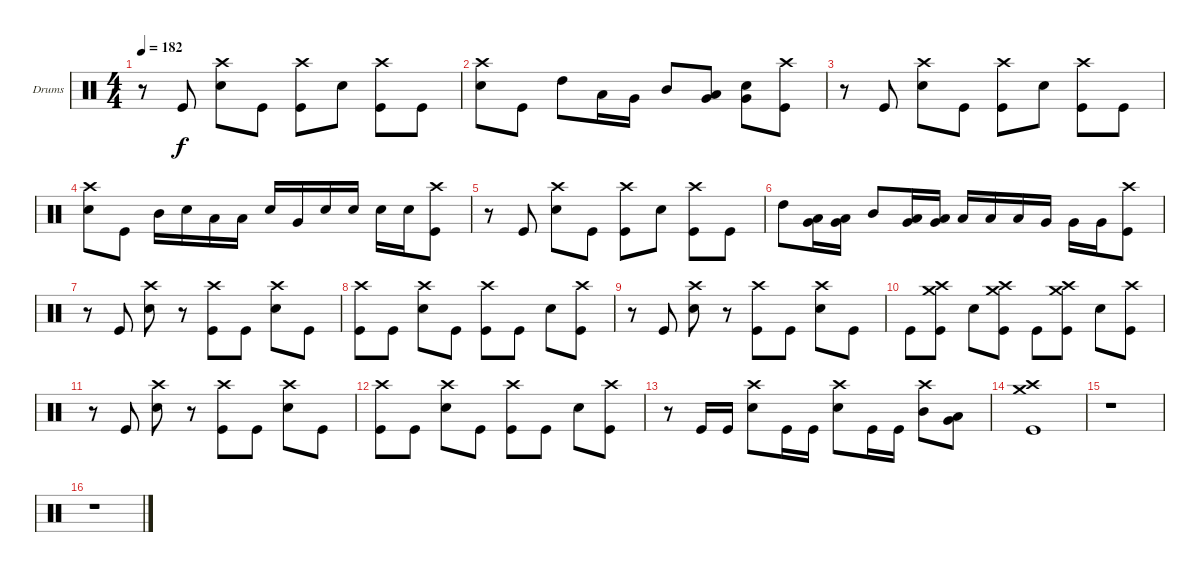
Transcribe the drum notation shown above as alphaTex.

\defaultSystemsLayout 4
\bracketExtendMode groupsimilarinstruments
\firstSystemTrackNameOrientation horizontal
\otherSystemsTrackNameOrientation horizontal
\track ("Drumkit" "Drums") {instrument percussion}
\staff {score}
\articulation defaults
\ts (4 4)
\tempo 182
\clef neutral
\ks c
r.8{dy f} "Kick (hit)".8 ("Snare (hit) 2" "Crash high (hit)").8 "Kick (hit)".8 ("Kick (hit)" "Crash high (hit)").8 "Snare (hit) 2".8 ("Kick (hit)" "Crash high (hit)").8 "Kick (hit)".8 |
("Snare (hit) 2" "Crash high (hit)").8 "Kick (hit)".8 "High Tom (hit)".8 "Low Tom (hit)".16 "Very Low Tom (hit)".16 "Mid Tom (hit)".8 ("Very Low Tom (hit)" "Low Tom (hit)").8 ("Snare (hit) 2" "Very Low Tom (hit)").8 ("Kick (hit)" "Crash high (hit)").8 |
r.8 "Kick (hit)".8 ("Snare (hit) 2" "Crash high (hit)").8 "Kick (hit)".8 ("Kick (hit)" "Crash high (hit)").8 "Snare (hit) 2".8 ("Kick (hit)" "Crash high (hit)").8 "Kick (hit)".8 |
("Snare (hit) 2" "Crash high (hit)").8 "Kick (hit)".8 "Mid Tom (hit)".16 "Snare (hit) 2".16 "Low Tom (hit)".16 "Low Tom (hit)".16 "Snare (hit) 2".16 "Very Low Tom (hit)".16 "Snare (hit) 2".16 "Snare (hit) 2".16 "Snare (hit) 2".16 "Snare (hit) 2".16 ("Kick (hit)" "Crash high (hit)").8 |
r.8 "Kick (hit)".8 ("Snare (hit) 2" "Crash high (hit)").8 "Kick (hit)".8 ("Kick (hit)" "Crash high (hit)").8 "Snare (hit) 2".8 ("Kick (hit)" "Crash high (hit)").8 "Kick (hit)".8 |
"High Tom (hit)".8 ("Low Tom (hit)" "Very Low Tom (hit)").16 ("Low Tom (hit)" "Very Low Tom (hit)").16 "Mid Tom (hit)".8 ("Very Low Tom (hit)" "Low Tom (hit)").16 ("Very Low Tom (hit)" "Low Tom (hit)").16 "Low Tom (hit)".16 "Low Tom (hit)".16 "Low Tom (hit)".16 "Very Low Tom (hit)".16 "Very Low Tom (hit)".16 "Very Low Tom (hit)".16 ("Kick (hit)" "Crash high (hit)").8 |
r.8 "Kick (hit)".8 ("Snare (hit) 2" "Crash high (hit)").8 r.8 ("Kick (hit)" "Crash high (hit)").8 "Kick (hit)".8 ("Snare (hit) 2" "Crash high (hit)").8 "Kick (hit)".8 |
("Kick (hit)" "Crash high (hit)").8 "Kick (hit)".8 ("Snare (hit) 2" "Crash high (hit)").8 "Kick (hit)".8 ("Kick (hit)" "Crash high (hit)").8 "Kick (hit)".8 "Snare (hit) 2".8 ("Kick (hit)" "Crash high (hit)").8 |
r.8 "Kick (hit)".8 ("Snare (hit) 2" "Crash high (hit)").8 r.8 ("Kick (hit)" "Crash high (hit)").8 "Kick (hit)".8 ("Snare (hit) 2" "Crash high (hit)").8 "Kick (hit)".8 |
"Kick (hit)".8 ("Kick (hit)" "Crash high (hit)" "Crash medium (hit)").8 "Snare (hit) 2".8 ("Kick (hit)" "Crash medium (hit)" "Crash high (hit)").8 "Kick (hit)".8 ("Kick (hit)" "Crash high (hit)" "Crash medium (hit)").8 "Snare (hit) 2".8 ("Kick (hit)" "Crash high (hit)").8 |
r.8 "Kick (hit)".8 ("Snare (hit) 2" "Crash high (hit)").8 r.8 ("Kick (hit)" "Crash high (hit)").8 "Kick (hit)".8 ("Snare (hit) 2" "Crash high (hit)").8 "Kick (hit)".8 |
("Kick (hit)" "Crash high (hit)").8 "Kick (hit)".8 ("Snare (hit) 2" "Crash high (hit)").8 "Kick (hit)".8 ("Kick (hit)" "Crash high (hit)").8 "Kick (hit)".8 "Snare (hit) 2".8 ("Kick (hit)" "Crash high (hit)").8 |
r.8 "Kick (hit)".16 "Kick (hit)".16 ("Snare (hit) 2" "Crash high (hit)").8 "Kick (hit)".16 "Kick (hit)".16 ("Snare (hit) 2" "Crash high (hit)").8 "Kick (hit)".16 "Kick (hit)".16 ("Mid Tom (hit)" "Crash high (hit)").8 ("Very Low Tom (hit)" "Low Tom (hit)").8 |
("Kick (hit)" "Crash high (hit)" "Crash medium (hit)").1 |
r.1 |
r.1
